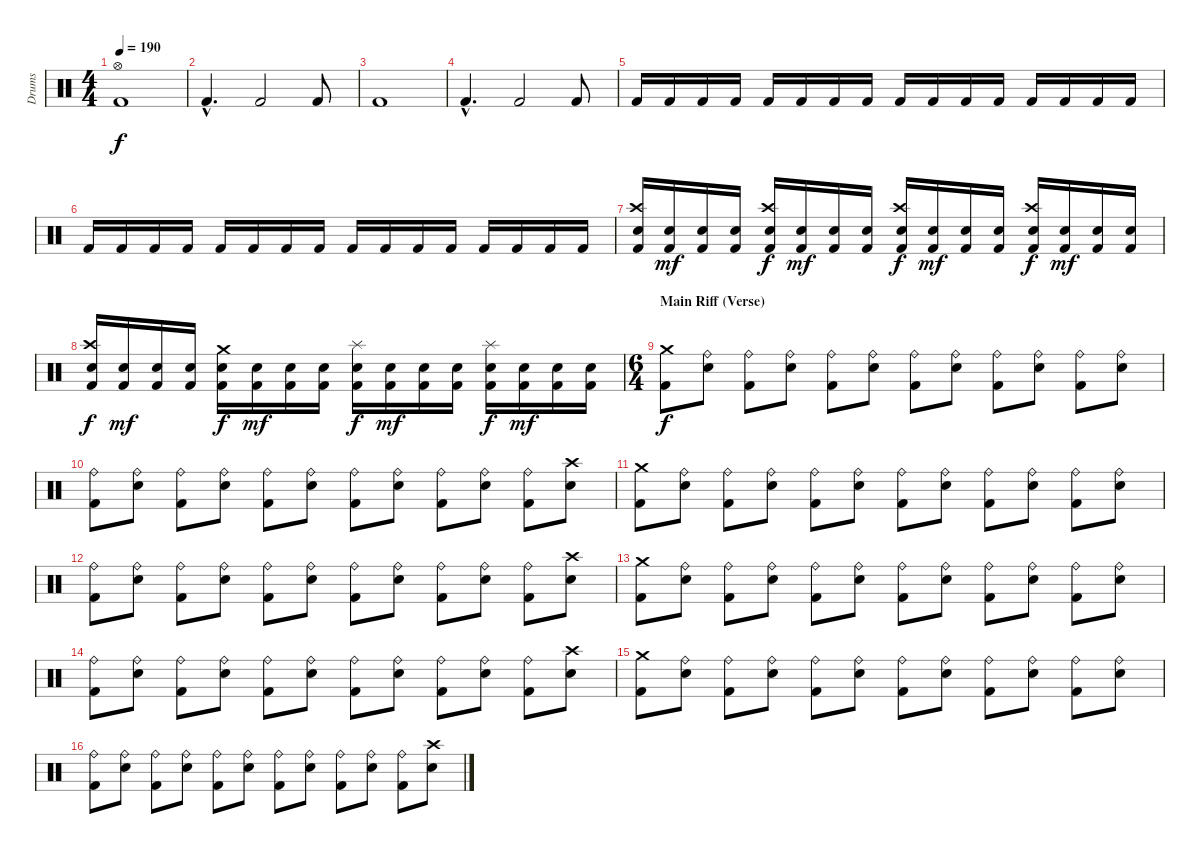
\track ("Drums" "Drums") {instrument percussion}
\staff {score}
\articulation defaults
\ts (4 4)
\tempo 190
\clef neutral
\ks c
("Hi-Hat (open)" "Kick (hit) 2").1{dy f} |
"Kick (hit) 2"{hac}.4{d} "Kick (hit) 2".2 "Kick (hit) 2".8 |
"Kick (hit) 2".1 |
"Kick (hit) 2"{hac}.4{d} "Kick (hit) 2".2 "Kick (hit) 2".8 |
"Kick (hit) 2".16 "Kick (hit) 2".16 "Kick (hit) 2".16 "Kick (hit) 2".16 "Kick (hit) 2".16 "Kick (hit) 2".16 "Kick (hit) 2".16 "Kick (hit) 2".16 "Kick (hit) 2".16 "Kick (hit) 2".16 "Kick (hit) 2".16 "Kick (hit) 2".16 "Kick (hit) 2".16 "Kick (hit) 2".16 "Kick (hit) 2".16 "Kick (hit) 2".16 |
"Kick (hit) 2".16 "Kick (hit) 2".16 "Kick (hit) 2".16 "Kick (hit) 2".16 "Kick (hit) 2".16 "Kick (hit) 2".16 "Kick (hit) 2".16 "Kick (hit) 2".16 "Kick (hit) 2".16 "Kick (hit) 2".16 "Kick (hit) 2".16 "Kick (hit) 2".16 "Kick (hit) 2".16 "Kick (hit) 2".16 "Kick (hit) 2".16 "Kick (hit) 2".16 |
("Crash high (hit)" "Snare (hit) 2" "Kick (hit) 2").16 ("Snare (hit) 2" "Kick (hit) 2").16{dy mf} ("Snare (hit) 2" "Kick (hit) 2").16 ("Snare (hit) 2" "Kick (hit) 2").16 ("Crash high (hit)" "Snare (hit) 2" "Kick (hit) 2").16{dy f} ("Snare (hit) 2" "Kick (hit) 2").16{dy mf} ("Snare (hit) 2" "Kick (hit) 2").16 ("Snare (hit) 2" "Kick (hit) 2").16 ("Crash high (hit)" "Snare (hit) 2" "Kick (hit) 2").16{dy f} ("Snare (hit) 2" "Kick (hit) 2").16{dy mf} ("Snare (hit) 2" "Kick (hit) 2").16 ("Snare (hit) 2" "Kick (hit) 2").16 ("Crash high (hit)" "Snare (hit) 2" "Kick (hit) 2").16{dy f} ("Snare (hit) 2" "Kick (hit) 2").16{dy mf} ("Snare (hit) 2" "Kick (hit) 2").16 ("Snare (hit) 2" "Kick (hit) 2").16 |
("Crash high (hit)" "Snare (hit) 2" "Kick (hit) 2").16{dy f} ("Snare (hit) 2" "Kick (hit) 2").16{dy mf} ("Snare (hit) 2" "Kick (hit) 2").16 ("Snare (hit) 2" "Kick (hit) 2").16 ("Crash medium (hit)" "Snare (hit) 2" "Kick (hit) 2").16{dy f} ("Snare (hit) 2" "Kick (hit) 2").16{dy mf} ("Snare (hit) 2" "Kick (hit) 2").16 ("Snare (hit) 2" "Kick (hit) 2").16 ("Splash (hit)" "Snare (hit) 2" "Kick (hit) 2").16{dy f} ("Snare (hit) 2" "Kick (hit) 2").16{dy mf} ("Snare (hit) 2" "Kick (hit) 2").16 ("Snare (hit) 2" "Kick (hit) 2").16 ("Splash (hit)" "Snare (hit) 2" "Kick (hit) 2").16{dy f} ("Snare (hit) 2" "Kick (hit) 2").16{dy mf} ("Snare (hit) 2" "Kick (hit) 2").16 ("Snare (hit) 2" "Kick (hit) 2").16 |
\ts (6 4)
\section ("" "Main Riff (Verse)")
("Crash medium (hit)" "Kick (hit) 2").8{dy f} ("Ride (bell)" "Snare (hit) 2").8 ("Ride (bell)" "Kick (hit) 2").8 ("Ride (bell)" "Snare (hit) 2").8 ("Ride (bell)" "Kick (hit) 2").8 ("Ride (bell)" "Snare (hit) 2").8 ("Ride (bell)" "Kick (hit) 2").8 ("Ride (bell)" "Snare (hit) 2").8 ("Ride (bell)" "Kick (hit) 2").8 ("Ride (bell)" "Snare (hit) 2").8 ("Ride (bell)" "Kick (hit) 2").8 ("Ride (bell)" "Snare (hit) 2").8 |
("Ride (bell)" "Kick (hit) 2").8 ("Ride (bell)" "Snare (hit) 2").8 ("Ride (bell)" "Kick (hit) 2").8 ("Ride (bell)" "Snare (hit) 2").8 ("Ride (bell)" "Kick (hit) 2").8 ("Ride (bell)" "Snare (hit) 2").8 ("Ride (bell)" "Kick (hit) 2").8 ("Ride (bell)" "Snare (hit) 2").8 ("Ride (bell)" "Kick (hit) 2").8 ("Ride (bell)" "Snare (hit) 2").8 ("Ride (bell)" "Kick (hit) 2").8 ("Crash high (hit)" "Snare (hit) 2").8 |
("Crash medium (hit)" "Kick (hit) 2").8 ("Ride (bell)" "Snare (hit) 2").8 ("Ride (bell)" "Kick (hit) 2").8 ("Ride (bell)" "Snare (hit) 2").8 ("Ride (bell)" "Kick (hit) 2").8 ("Ride (bell)" "Snare (hit) 2").8 ("Ride (bell)" "Kick (hit) 2").8 ("Ride (bell)" "Snare (hit) 2").8 ("Ride (bell)" "Kick (hit) 2").8 ("Ride (bell)" "Snare (hit) 2").8 ("Ride (bell)" "Kick (hit) 2").8 ("Ride (bell)" "Snare (hit) 2").8 |
("Ride (bell)" "Kick (hit) 2").8 ("Ride (bell)" "Snare (hit) 2").8 ("Ride (bell)" "Kick (hit) 2").8 ("Ride (bell)" "Snare (hit) 2").8 ("Ride (bell)" "Kick (hit) 2").8 ("Ride (bell)" "Snare (hit) 2").8 ("Ride (bell)" "Kick (hit) 2").8 ("Ride (bell)" "Snare (hit) 2").8 ("Ride (bell)" "Kick (hit) 2").8 ("Ride (bell)" "Snare (hit) 2").8 ("Ride (bell)" "Kick (hit) 2").8 ("Crash high (hit)" "Snare (hit) 2").8 |
("Crash medium (hit)" "Kick (hit) 2").8 ("Ride (bell)" "Snare (hit) 2").8 ("Ride (bell)" "Kick (hit) 2").8 ("Ride (bell)" "Snare (hit) 2").8 ("Ride (bell)" "Kick (hit) 2").8 ("Ride (bell)" "Snare (hit) 2").8 ("Ride (bell)" "Kick (hit) 2").8 ("Ride (bell)" "Snare (hit) 2").8 ("Ride (bell)" "Kick (hit) 2").8 ("Ride (bell)" "Snare (hit) 2").8 ("Ride (bell)" "Kick (hit) 2").8 ("Ride (bell)" "Snare (hit) 2").8 |
("Ride (bell)" "Kick (hit) 2").8 ("Ride (bell)" "Snare (hit) 2").8 ("Ride (bell)" "Kick (hit) 2").8 ("Ride (bell)" "Snare (hit) 2").8 ("Ride (bell)" "Kick (hit) 2").8 ("Ride (bell)" "Snare (hit) 2").8 ("Ride (bell)" "Kick (hit) 2").8 ("Ride (bell)" "Snare (hit) 2").8 ("Ride (bell)" "Kick (hit) 2").8 ("Ride (bell)" "Snare (hit) 2").8 ("Ride (bell)" "Kick (hit) 2").8 ("Crash high (hit)" "Snare (hit) 2").8 |
("Crash medium (hit)" "Kick (hit) 2").8 ("Ride (bell)" "Snare (hit) 2").8 ("Ride (bell)" "Kick (hit) 2").8 ("Ride (bell)" "Snare (hit) 2").8 ("Ride (bell)" "Kick (hit) 2").8 ("Ride (bell)" "Snare (hit) 2").8 ("Ride (bell)" "Kick (hit) 2").8 ("Ride (bell)" "Snare (hit) 2").8 ("Ride (bell)" "Kick (hit) 2").8 ("Ride (bell)" "Snare (hit) 2").8 ("Ride (bell)" "Kick (hit) 2").8 ("Ride (bell)" "Snare (hit) 2").8 |
("Ride (bell)" "Kick (hit) 2").8 ("Ride (bell)" "Snare (hit) 2").8 ("Ride (bell)" "Kick (hit) 2").8 ("Ride (bell)" "Snare (hit) 2").8 ("Ride (bell)" "Kick (hit) 2").8 ("Ride (bell)" "Snare (hit) 2").8 ("Ride (bell)" "Kick (hit) 2").8 ("Ride (bell)" "Snare (hit) 2").8 ("Ride (bell)" "Kick (hit) 2").8 ("Ride (bell)" "Snare (hit) 2").8 ("Ride (bell)" "Kick (hit) 2").8 ("Crash high (hit)" "Snare (hit) 2").8
